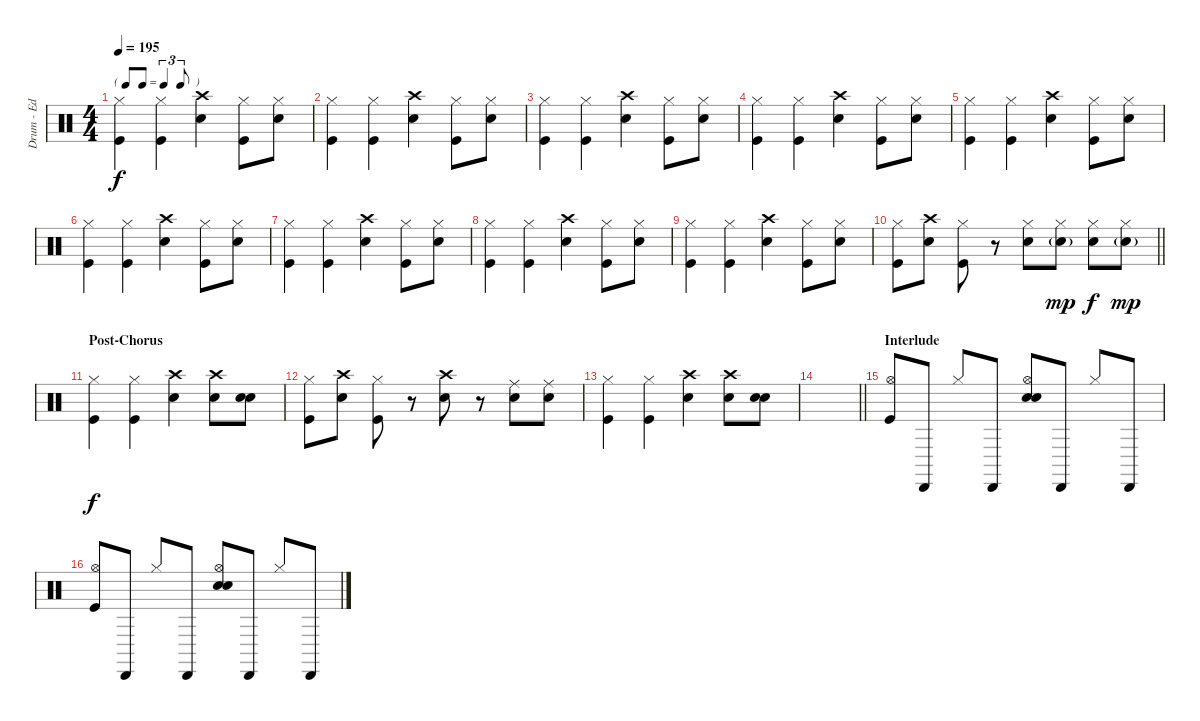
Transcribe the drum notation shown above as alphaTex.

\track ("Drum - Ed" "Drum - Ed") {instrument percussion}
\staff {score}
\articulation defaults
\ts (4 4)
\tf triplet8th
\tempo 195
\clef neutral
\ks c
("Hi-Hat (closed)" "Kick (hit)").4{dy f} ("Hi-Hat (closed)" "Kick (hit)").4 ("Crash high (hit)" "Electric Snare (hit)").4 ("Hi-Hat (closed)" "Kick (hit)").8 ("Hi-Hat (closed)" "Electric Snare (hit)").8 |
("Hi-Hat (closed)" "Kick (hit)").4 ("Hi-Hat (closed)" "Kick (hit)").4 ("Crash high (hit)" "Electric Snare (hit)").4 ("Hi-Hat (closed)" "Kick (hit)").8 ("Hi-Hat (closed)" "Electric Snare (hit)").8 |
("Hi-Hat (closed)" "Kick (hit)").4 ("Hi-Hat (closed)" "Kick (hit)").4 ("Crash high (hit)" "Electric Snare (hit)").4 ("Hi-Hat (closed)" "Kick (hit)").8 ("Hi-Hat (closed)" "Electric Snare (hit)").8 |
("Hi-Hat (closed)" "Kick (hit)").4 ("Hi-Hat (closed)" "Kick (hit)").4 ("Crash high (hit)" "Electric Snare (hit)").4 ("Hi-Hat (closed)" "Kick (hit)").8 ("Hi-Hat (closed)" "Electric Snare (hit)").8 |
("Hi-Hat (closed)" "Kick (hit)").4 ("Hi-Hat (closed)" "Kick (hit)").4 ("Crash high (hit)" "Electric Snare (hit)").4 ("Hi-Hat (closed)" "Kick (hit)").8 ("Hi-Hat (closed)" "Electric Snare (hit)").8 |
("Hi-Hat (closed)" "Kick (hit)").4 ("Hi-Hat (closed)" "Kick (hit)").4 ("Crash high (hit)" "Electric Snare (hit)").4 ("Hi-Hat (closed)" "Kick (hit)").8 ("Hi-Hat (closed)" "Electric Snare (hit)").8 |
("Hi-Hat (closed)" "Kick (hit)").4 ("Hi-Hat (closed)" "Kick (hit)").4 ("Crash high (hit)" "Electric Snare (hit)").4 ("Hi-Hat (closed)" "Kick (hit)").8 ("Hi-Hat (closed)" "Electric Snare (hit)").8 |
("Hi-Hat (closed)" "Kick (hit)").4 ("Hi-Hat (closed)" "Kick (hit)").4 ("Crash high (hit)" "Electric Snare (hit)").4 ("Hi-Hat (closed)" "Kick (hit)").8 ("Hi-Hat (closed)" "Electric Snare (hit)").8 |
("Hi-Hat (closed)" "Kick (hit)").4 ("Hi-Hat (closed)" "Kick (hit)").4 ("Crash high (hit)" "Electric Snare (hit)").4 ("Hi-Hat (closed)" "Kick (hit)").8 ("Hi-Hat (closed)" "Electric Snare (hit)").8 |
\barLineRight lightlight
("Hi-Hat (closed)" "Kick (hit)").8 ("Crash high (hit)" "Electric Snare (hit)").8 ("Hi-Hat (closed)" "Kick (hit)").8 r.8 ("Hi-Hat (closed)" "Electric Snare (hit)").8 ("Hi-Hat (closed)" "Electric Snare (hit)"{g}).8{dy mp} ("Hi-Hat (closed)" "Electric Snare (hit)").8{dy f} ("Hi-Hat (closed)" "Electric Snare (hit)"{g}).8{dy mp} |
\section ("" "Post-Chorus")
("Hi-Hat (closed)" "Kick (hit)").4{dy f} ("Hi-Hat (closed)" "Kick (hit)").4 ("Crash high (hit)" "Electric Snare (hit)").4 ("Crash high (hit)" "Electric Snare (hit)").8 ("Hand Clap (hit)" "Electric Snare (hit)").8 |
("Hi-Hat (closed)" "Kick (hit)").8 ("Crash high (hit)" "Electric Snare (hit)").8 ("Hi-Hat (closed)" "Kick (hit)").8 r.8 ("Crash high (hit)" "Electric Snare (hit)").8 r.8 ("Ride (middle)" "Electric Snare (hit)").8 ("Ride (middle)" "Electric Snare (hit)").8 |
("Hi-Hat (closed)" "Kick (hit)").4 ("Hi-Hat (closed)" "Kick (hit)").4 ("Crash high (hit)" "Electric Snare (hit)").4 ("Crash high (hit)" "Electric Snare (hit)").8 ("Hand Clap (hit)" "Electric Snare (hit)").8 |
\barLineRight lightlight
|
\section ("" "Interlude")
("Hi-Hat (open)" "Kick (hit)").8 "Cabasa (hit)".8 "Hi-Hat (closed)".8 "Cabasa (hit)".8 ("Hi-Hat (open)" "Hand Clap (hit)" "Electric Snare (hit)").8 "Cabasa (hit)".8 "Hi-Hat (closed)".8 "Cabasa (hit)".8 |
("Hi-Hat (open)" "Kick (hit)").8 "Cabasa (hit)".8 "Hi-Hat (closed)".8 "Cabasa (hit)".8 ("Hi-Hat (open)" "Hand Clap (hit)" "Electric Snare (hit)").8 "Cabasa (hit)".8 "Hi-Hat (closed)".8 "Cabasa (hit)".8
